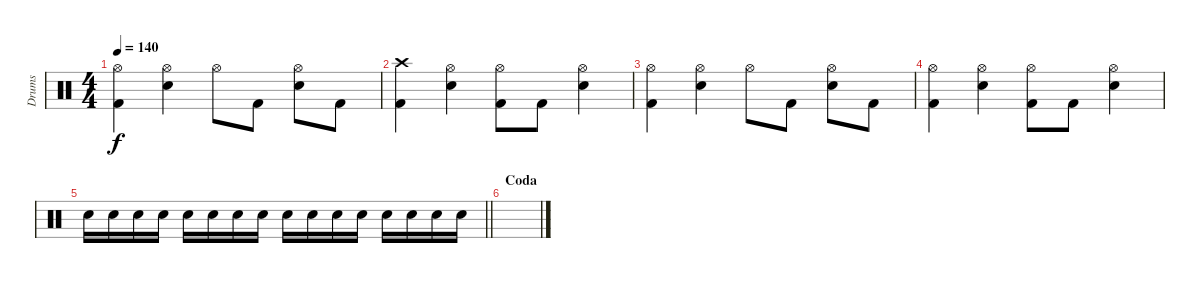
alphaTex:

\track ("Drums" "Drums") {instrument percussion}
\staff {score}
\articulation defaults
\ts (4 4)
\tempo 140
\clef neutral
\ks c
("Hi-Hat (open)" "Kick (hit) 2").4{dy f} ("Hi-Hat (open)" "Electric Snare (hit)").4 "Hi-Hat (open)".8 "Kick (hit) 2".8 ("Hi-Hat (open)" "Electric Snare (hit)").8 "Kick (hit) 2".8 |
("Crash high (hit)" "Kick (hit) 2").4 ("Hi-Hat (open)" "Electric Snare (hit)").4 ("Hi-Hat (open)" "Kick (hit) 2").8 "Kick (hit) 2".8 ("Hi-Hat (open)" "Electric Snare (hit)").4 |
("Hi-Hat (open)" "Kick (hit) 2").4 ("Hi-Hat (open)" "Electric Snare (hit)").4 "Hi-Hat (open)".8 "Kick (hit) 2".8 ("Hi-Hat (open)" "Electric Snare (hit)").8 "Kick (hit) 2".8 |
("Hi-Hat (open)" "Kick (hit) 2").4 ("Hi-Hat (open)" "Electric Snare (hit)").4 ("Hi-Hat (open)" "Kick (hit) 2").8 "Kick (hit) 2".8 ("Hi-Hat (open)" "Electric Snare (hit)").4 |
\barLineRight lightlight "Electric Snare (hit)".16 "Electric Snare (hit)".16 "Electric Snare (hit)".16 "Electric Snare (hit)".16 "Electric Snare (hit)".16 "Electric Snare (hit)".16 "Electric Snare (hit)".16 "Electric Snare (hit)".16 "Electric Snare (hit)".16 "Electric Snare (hit)".16 "Electric Snare (hit)".16 "Electric Snare (hit)".16 "Electric Snare (hit)".16 "Electric Snare (hit)".16 "Electric Snare (hit)".16 "Electric Snare (hit)".16
|
\section ("" "Coda")
